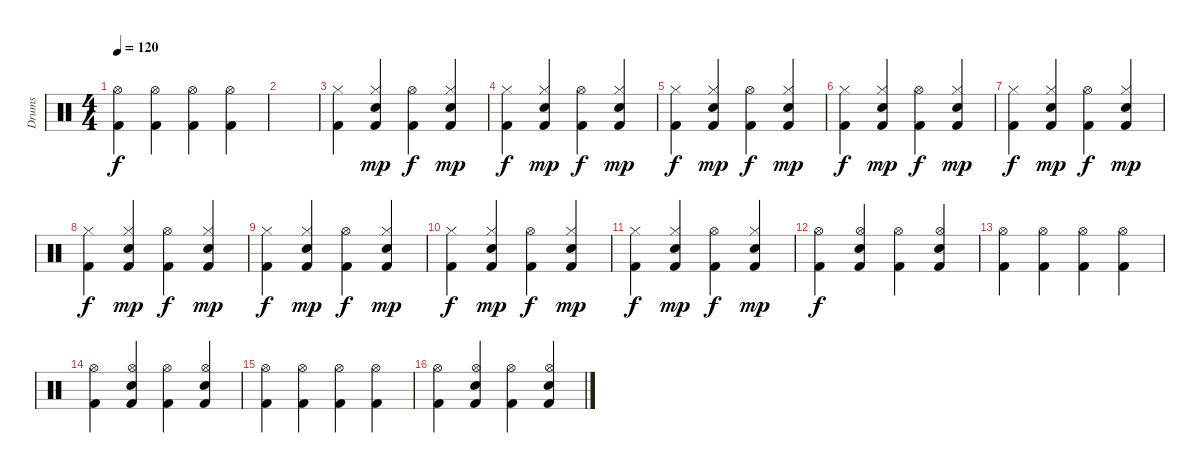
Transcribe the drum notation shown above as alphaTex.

\track ("Drums" "Drums") {instrument percussion}
\staff {score}
\articulation defaults
\ts (4 4)
\tempo 120
\clef neutral
\ks c
("Kick (hit) 2" "Hi-Hat (open)").4{dy f} ("Kick (hit) 2" "Hi-Hat (open)").4 ("Kick (hit) 2" "Hi-Hat (open)").4 ("Kick (hit) 2" "Hi-Hat (open)").4 |
|
("Kick (hit) 2" "Hi-Hat (closed)").4 ("Kick (hit) 2" "Hi-Hat (closed)" "Electric Snare (hit)").4{dy mp} ("Kick (hit) 2" "Hi-Hat (open)").4{dy f} ("Kick (hit) 2" "Hi-Hat (closed)" "Electric Snare (hit)").4{dy mp} |
("Kick (hit) 2" "Hi-Hat (closed)").4{dy f} ("Kick (hit) 2" "Hi-Hat (closed)" "Electric Snare (hit)").4{dy mp} ("Kick (hit) 2" "Hi-Hat (open)").4{dy f} ("Kick (hit) 2" "Hi-Hat (closed)" "Electric Snare (hit)").4{dy mp} |
("Kick (hit) 2" "Hi-Hat (closed)").4{dy f} ("Kick (hit) 2" "Hi-Hat (closed)" "Electric Snare (hit)").4{dy mp} ("Kick (hit) 2" "Hi-Hat (open)").4{dy f} ("Kick (hit) 2" "Hi-Hat (closed)" "Electric Snare (hit)").4{dy mp} |
("Kick (hit) 2" "Hi-Hat (closed)").4{dy f} ("Kick (hit) 2" "Hi-Hat (closed)" "Electric Snare (hit)").4{dy mp} ("Kick (hit) 2" "Hi-Hat (open)").4{dy f} ("Kick (hit) 2" "Hi-Hat (closed)" "Electric Snare (hit)").4{dy mp} |
("Kick (hit) 2" "Hi-Hat (closed)").4{dy f} ("Kick (hit) 2" "Hi-Hat (closed)" "Electric Snare (hit)").4{dy mp} ("Kick (hit) 2" "Hi-Hat (open)").4{dy f} ("Kick (hit) 2" "Hi-Hat (closed)" "Electric Snare (hit)").4{dy mp} |
("Kick (hit) 2" "Hi-Hat (closed)").4{dy f} ("Kick (hit) 2" "Hi-Hat (closed)" "Electric Snare (hit)").4{dy mp} ("Kick (hit) 2" "Hi-Hat (open)").4{dy f} ("Kick (hit) 2" "Hi-Hat (closed)" "Electric Snare (hit)").4{dy mp} |
("Kick (hit) 2" "Hi-Hat (closed)").4{dy f} ("Kick (hit) 2" "Hi-Hat (closed)" "Electric Snare (hit)").4{dy mp} ("Kick (hit) 2" "Hi-Hat (open)").4{dy f} ("Kick (hit) 2" "Hi-Hat (closed)" "Electric Snare (hit)").4{dy mp} |
("Kick (hit) 2" "Hi-Hat (closed)").4{dy f} ("Kick (hit) 2" "Hi-Hat (closed)" "Electric Snare (hit)").4{dy mp} ("Kick (hit) 2" "Hi-Hat (open)").4{dy f} ("Kick (hit) 2" "Hi-Hat (closed)" "Electric Snare (hit)").4{dy mp} |
("Kick (hit) 2" "Hi-Hat (closed)").4{dy f} ("Kick (hit) 2" "Hi-Hat (closed)" "Electric Snare (hit)").4{dy mp} ("Kick (hit) 2" "Hi-Hat (open)").4{dy f} ("Kick (hit) 2" "Hi-Hat (closed)" "Electric Snare (hit)").4{dy mp} |
("Kick (hit) 2" "Hi-Hat (open)").4{dy f} ("Kick (hit) 2" "Hi-Hat (open)" "Electric Snare (hit)").4 ("Kick (hit) 2" "Hi-Hat (open)").4 ("Kick (hit) 2" "Hi-Hat (open)" "Electric Snare (hit)").4 |
("Kick (hit) 2" "Hi-Hat (open)").4 ("Kick (hit) 2" "Hi-Hat (open)").4 ("Kick (hit) 2" "Hi-Hat (open)").4 ("Kick (hit) 2" "Hi-Hat (open)").4 |
("Kick (hit) 2" "Hi-Hat (open)").4 ("Kick (hit) 2" "Hi-Hat (open)" "Electric Snare (hit)").4 ("Kick (hit) 2" "Hi-Hat (open)").4 ("Kick (hit) 2" "Hi-Hat (open)" "Electric Snare (hit)").4 |
("Kick (hit) 2" "Hi-Hat (open)").4 ("Kick (hit) 2" "Hi-Hat (open)").4 ("Kick (hit) 2" "Hi-Hat (open)").4 ("Kick (hit) 2" "Hi-Hat (open)").4 |
("Kick (hit) 2" "Hi-Hat (open)").4 ("Kick (hit) 2" "Hi-Hat (open)" "Electric Snare (hit)").4 ("Kick (hit) 2" "Hi-Hat (open)").4 ("Kick (hit) 2" "Hi-Hat (open)" "Electric Snare (hit)").4
